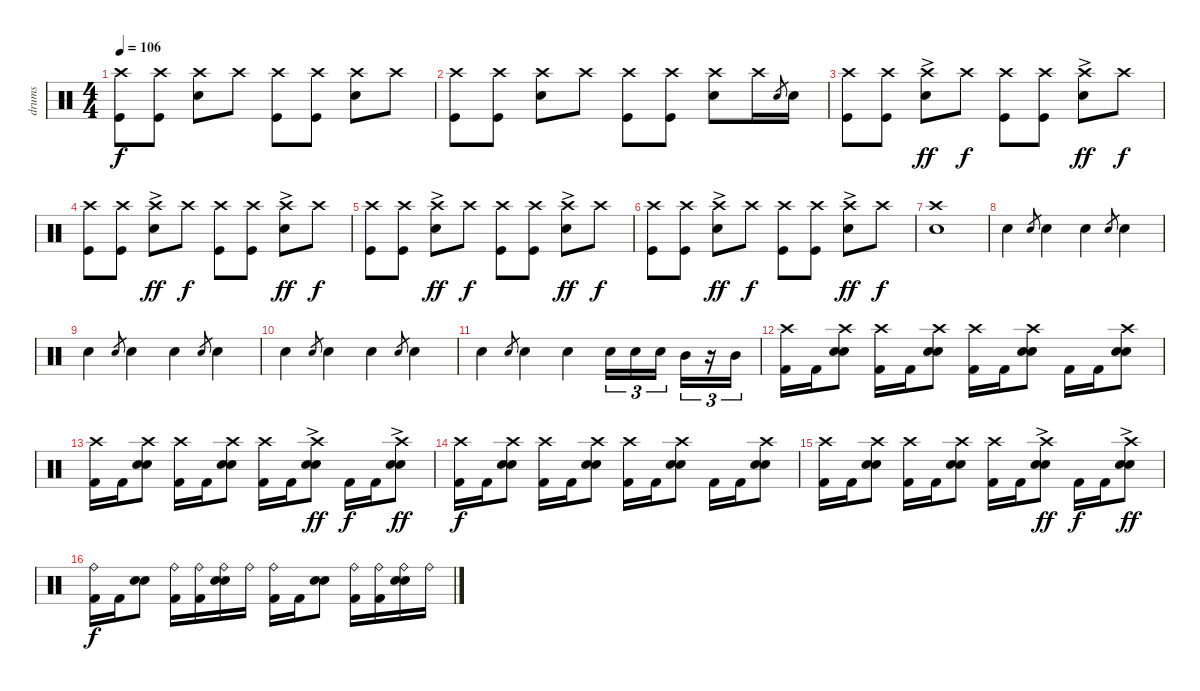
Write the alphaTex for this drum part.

\track ("drums" "drums") {instrument percussion}
\staff {score}
\articulation defaults
\ts (4 4)
\tempo 106
\clef neutral
\ks c
("Crash high (hit)" "Kick (hit)").8{dy f} ("Crash high (hit)" "Kick (hit)").8 ("Crash high (hit)" "Snare (hit) 2").8 "Crash high (hit)".8 ("Crash high (hit)" "Kick (hit)").8 ("Crash high (hit)" "Kick (hit)").8 ("Crash high (hit)" "Snare (hit) 2").8 "Crash high (hit)".8 |
("Crash high (hit)" "Kick (hit)").8 ("Crash high (hit)" "Kick (hit)").8 ("Crash high (hit)" "Snare (hit) 2").8 "Crash high (hit)".8 ("Crash high (hit)" "Kick (hit)").8 ("Crash high (hit)" "Kick (hit)").8 ("Crash high (hit)" "Snare (hit) 2").8 "Crash high (hit)".16 "Snare (hit) 2".8{gr} "Snare (hit) 2".16 |
("Crash high (hit)" "Kick (hit)").8 ("Crash high (hit)" "Kick (hit)").8 ("Crash high (hit)" "Snare (hit) 2"{ac}).8{dy ff} "Crash high (hit)".8{dy f} ("Crash high (hit)" "Kick (hit)").8 ("Crash high (hit)" "Kick (hit)").8 ("Crash high (hit)" "Snare (hit) 2"{ac}).8{dy ff} "Crash high (hit)".8{dy f} |
("Crash high (hit)" "Kick (hit)").8 ("Crash high (hit)" "Kick (hit)").8 ("Crash high (hit)" "Snare (hit) 2"{ac}).8{dy ff} "Crash high (hit)".8{dy f} ("Crash high (hit)" "Kick (hit)").8 ("Crash high (hit)" "Kick (hit)").8 ("Crash high (hit)" "Snare (hit) 2"{ac}).8{dy ff} "Crash high (hit)".8{dy f} |
("Crash high (hit)" "Kick (hit)").8 ("Crash high (hit)" "Kick (hit)").8 ("Crash high (hit)" "Snare (hit) 2"{ac}).8{dy ff} "Crash high (hit)".8{dy f} ("Crash high (hit)" "Kick (hit)").8 ("Crash high (hit)" "Kick (hit)").8 ("Crash high (hit)" "Snare (hit) 2"{ac}).8{dy ff} "Crash high (hit)".8{dy f} |
("Crash high (hit)" "Kick (hit)").8 ("Crash high (hit)" "Kick (hit)").8 ("Crash high (hit)" "Snare (hit) 2"{ac}).8{dy ff} "Crash high (hit)".8{dy f} ("Crash high (hit)" "Kick (hit)").8 ("Crash high (hit)" "Kick (hit)").8 ("Crash high (hit)" "Snare (hit) 2"{ac}).8{dy ff} "Crash high (hit)".8{dy f} |
("Crash high (hit)" "Snare (hit) 2").1 |
"Snare (hit) 2".4 "Snare (hit) 2".8{gr} "Snare (hit) 2".4 "Snare (hit) 2".4 "Snare (hit) 2".8{gr} "Snare (hit) 2".4 |
"Snare (hit) 2".4 "Snare (hit) 2".8{gr} "Snare (hit) 2".4 "Snare (hit) 2".4 "Snare (hit) 2".8{gr} "Snare (hit) 2".4 |
"Snare (hit) 2".4 "Snare (hit) 2".8{gr} "Snare (hit) 2".4 "Snare (hit) 2".4 "Snare (hit) 2".8{gr} "Snare (hit) 2".4 |
"Snare (hit) 2".4 "Snare (hit) 2".8{gr} "Snare (hit) 2".4 "Snare (hit) 2".4 "Snare (hit) 2".16{tu (3 2)} "Snare (hit) 2".16{tu (3 2)} "Snare (hit) 2".16{tu (3 2)} "Mid Tom (hit)".16{tu (3 2)} r.16{tu (3 2)} "Mid Tom (hit)".16{tu (3 2)} |
("Crash high (hit)" "Kick (hit) 2").16 "Kick (hit) 2".16 ("Crash high (hit)" "Snare (hit) 2" "Snare (hit) 2").8 ("Crash high (hit)" "Kick (hit) 2").16 "Kick (hit) 2".16 ("Crash high (hit)" "Snare (hit) 2" "Snare (hit) 2").8 ("Crash high (hit)" "Kick (hit) 2").16 "Kick (hit) 2".16 ("Crash high (hit)" "Snare (hit) 2" "Snare (hit) 2").8 "Kick (hit) 2".16 "Kick (hit) 2".16 ("Crash high (hit)" "Snare (hit) 2" "Snare (hit) 2").8 |
("Crash high (hit)" "Kick (hit) 2").16 "Kick (hit) 2".16 ("Crash high (hit)" "Snare (hit) 2" "Snare (hit) 2").8 ("Crash high (hit)" "Kick (hit) 2").16 "Kick (hit) 2".16 ("Crash high (hit)" "Snare (hit) 2" "Snare (hit) 2").8 ("Crash high (hit)" "Kick (hit) 2").16 "Kick (hit) 2".16 ("Crash high (hit)"{ac} "Snare (hit) 2" "Snare (hit) 2").8{dy ff} "Kick (hit) 2".16{dy f} "Kick (hit) 2".16 ("Crash high (hit)"{ac} "Snare (hit) 2" "Snare (hit) 2").8{dy ff} |
("Crash high (hit)" "Kick (hit) 2").16{dy f} "Kick (hit) 2".16 ("Crash high (hit)" "Snare (hit) 2" "Snare (hit) 2").8 ("Crash high (hit)" "Kick (hit) 2").16 "Kick (hit) 2".16 ("Crash high (hit)" "Snare (hit) 2" "Snare (hit) 2").8 ("Crash high (hit)" "Kick (hit) 2").16 "Kick (hit) 2".16 ("Crash high (hit)" "Snare (hit) 2" "Snare (hit) 2").8 "Kick (hit) 2".16 "Kick (hit) 2".16 ("Crash high (hit)" "Snare (hit) 2" "Snare (hit) 2").8 |
("Crash high (hit)" "Kick (hit) 2").16 "Kick (hit) 2".16 ("Crash high (hit)" "Snare (hit) 2" "Snare (hit) 2").8 ("Crash high (hit)" "Kick (hit) 2").16 "Kick (hit) 2".16 ("Crash high (hit)" "Snare (hit) 2" "Snare (hit) 2").8 ("Crash high (hit)" "Kick (hit) 2").16 "Kick (hit) 2".16 ("Crash high (hit)"{ac} "Snare (hit) 2" "Snare (hit) 2").8{dy ff} "Kick (hit) 2".16{dy f} "Kick (hit) 2".16 ("Crash high (hit)"{ac} "Snare (hit) 2" "Snare (hit) 2").8{dy ff} |
("Ride (bell)" "Kick (hit) 2").16{dy f} "Kick (hit) 2".16 ("Snare (hit) 2" "Snare (hit) 2").8 ("Ride (bell)" "Kick (hit) 2").16 ("Ride (bell)" "Kick (hit) 2").16 ("Ride (bell)" "Snare (hit) 2" "Snare (hit) 2").16 "Ride (bell)".16 ("Ride (bell)" "Kick (hit) 2").16 "Kick (hit) 2".16 ("Snare (hit) 2" "Snare (hit) 2").8 ("Ride (bell)" "Kick (hit) 2").16 ("Ride (bell)" "Kick (hit) 2").16 ("Ride (bell)" "Snare (hit) 2" "Snare (hit) 2").16 "Ride (bell)".16
